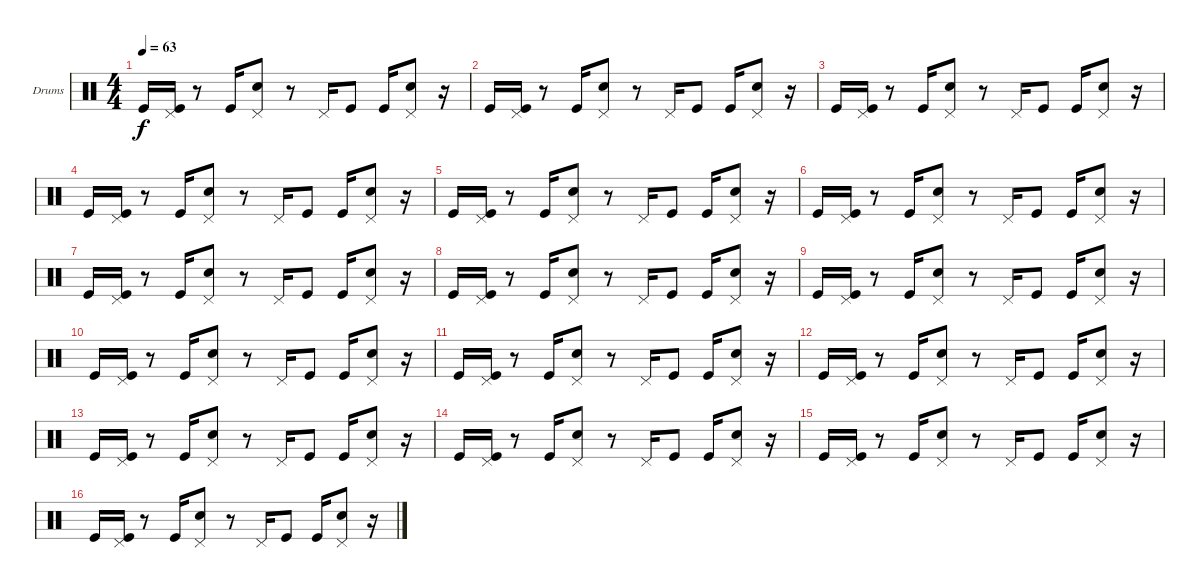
\bracketExtendMode groupsimilarinstruments
\firstSystemTrackNameOrientation horizontal
\otherSystemsTrackNameOrientation horizontal
\track ("Drumkit" "Drums") {instrument percussion}
\staff {score}
\articulation defaults
\ts (4 4)
\tempo 63
\clef neutral
\ks c "Kick (hit)".16{dy f}
("Pedal Hi-Hat (hit)" "Kick (hit)").16 r.8 "Kick (hit)".16 ("Pedal Hi-Hat (hit)" "Snare (hit) 2").8 r.8 "Pedal Hi-Hat (hit)".16 "Kick (hit)".8 "Kick (hit)".16 ("Pedal Hi-Hat (hit)" "Snare (hit) 2").8 r.16 |
"Kick (hit)".16 ("Pedal Hi-Hat (hit)" "Kick (hit)").16 r.8 "Kick (hit)".16 ("Pedal Hi-Hat (hit)" "Snare (hit) 2").8 r.8 "Pedal Hi-Hat (hit)".16 "Kick (hit)".8 "Kick (hit)".16 ("Pedal Hi-Hat (hit)" "Snare (hit) 2").8 r.16 |
"Kick (hit)".16 ("Pedal Hi-Hat (hit)" "Kick (hit)").16 r.8 "Kick (hit)".16 ("Pedal Hi-Hat (hit)" "Snare (hit) 2").8 r.8 "Pedal Hi-Hat (hit)".16 "Kick (hit)".8 "Kick (hit)".16 ("Pedal Hi-Hat (hit)" "Snare (hit) 2").8 r.16 |
"Kick (hit)".16 ("Pedal Hi-Hat (hit)" "Kick (hit)").16 r.8 "Kick (hit)".16 ("Pedal Hi-Hat (hit)" "Snare (hit) 2").8 r.8 "Pedal Hi-Hat (hit)".16 "Kick (hit)".8 "Kick (hit)".16 ("Pedal Hi-Hat (hit)" "Snare (hit) 2").8 r.16 |
"Kick (hit)".16 ("Pedal Hi-Hat (hit)" "Kick (hit)").16 r.8 "Kick (hit)".16 ("Pedal Hi-Hat (hit)" "Snare (hit) 2").8 r.8 "Pedal Hi-Hat (hit)".16 "Kick (hit)".8 "Kick (hit)".16 ("Pedal Hi-Hat (hit)" "Snare (hit) 2").8 r.16 |
"Kick (hit)".16 ("Pedal Hi-Hat (hit)" "Kick (hit)").16 r.8 "Kick (hit)".16 ("Pedal Hi-Hat (hit)" "Snare (hit) 2").8 r.8 "Pedal Hi-Hat (hit)".16 "Kick (hit)".8 "Kick (hit)".16 ("Pedal Hi-Hat (hit)" "Snare (hit) 2").8 r.16 |
"Kick (hit)".16 ("Pedal Hi-Hat (hit)" "Kick (hit)").16 r.8 "Kick (hit)".16 ("Pedal Hi-Hat (hit)" "Snare (hit) 2").8 r.8 "Pedal Hi-Hat (hit)".16 "Kick (hit)".8 "Kick (hit)".16 ("Pedal Hi-Hat (hit)" "Snare (hit) 2").8 r.16 |
"Kick (hit)".16 ("Pedal Hi-Hat (hit)" "Kick (hit)").16 r.8 "Kick (hit)".16 ("Pedal Hi-Hat (hit)" "Snare (hit) 2").8 r.8 "Pedal Hi-Hat (hit)".16 "Kick (hit)".8 "Kick (hit)".16 ("Pedal Hi-Hat (hit)" "Snare (hit) 2").8 r.16 |
"Kick (hit)".16 ("Pedal Hi-Hat (hit)" "Kick (hit)").16 r.8 "Kick (hit)".16 ("Pedal Hi-Hat (hit)" "Snare (hit) 2").8 r.8 "Pedal Hi-Hat (hit)".16 "Kick (hit)".8 "Kick (hit)".16 ("Pedal Hi-Hat (hit)" "Snare (hit) 2").8 r.16 |
"Kick (hit)".16 ("Pedal Hi-Hat (hit)" "Kick (hit)").16 r.8 "Kick (hit)".16 ("Pedal Hi-Hat (hit)" "Snare (hit) 2").8 r.8 "Pedal Hi-Hat (hit)".16 "Kick (hit)".8 "Kick (hit)".16 ("Pedal Hi-Hat (hit)" "Snare (hit) 2").8 r.16 |
"Kick (hit)".16 ("Pedal Hi-Hat (hit)" "Kick (hit)").16 r.8 "Kick (hit)".16 ("Pedal Hi-Hat (hit)" "Snare (hit) 2").8 r.8 "Pedal Hi-Hat (hit)".16 "Kick (hit)".8 "Kick (hit)".16 ("Pedal Hi-Hat (hit)" "Snare (hit) 2").8 r.16 |
"Kick (hit)".16 ("Pedal Hi-Hat (hit)" "Kick (hit)").16 r.8 "Kick (hit)".16 ("Pedal Hi-Hat (hit)" "Snare (hit) 2").8 r.8 "Pedal Hi-Hat (hit)".16 "Kick (hit)".8 "Kick (hit)".16 ("Pedal Hi-Hat (hit)" "Snare (hit) 2").8 r.16 |
"Kick (hit)".16 ("Pedal Hi-Hat (hit)" "Kick (hit)").16 r.8 "Kick (hit)".16 ("Pedal Hi-Hat (hit)" "Snare (hit) 2").8 r.8 "Pedal Hi-Hat (hit)".16 "Kick (hit)".8 "Kick (hit)".16 ("Pedal Hi-Hat (hit)" "Snare (hit) 2").8 r.16 |
"Kick (hit)".16 ("Pedal Hi-Hat (hit)" "Kick (hit)").16 r.8 "Kick (hit)".16 ("Pedal Hi-Hat (hit)" "Snare (hit) 2").8 r.8 "Pedal Hi-Hat (hit)".16 "Kick (hit)".8 "Kick (hit)".16 ("Pedal Hi-Hat (hit)" "Snare (hit) 2").8 r.16 |
"Kick (hit)".16 ("Pedal Hi-Hat (hit)" "Kick (hit)").16 r.8 "Kick (hit)".16 ("Pedal Hi-Hat (hit)" "Snare (hit) 2").8 r.8 "Pedal Hi-Hat (hit)".16 "Kick (hit)".8 "Kick (hit)".16 ("Pedal Hi-Hat (hit)" "Snare (hit) 2").8 r.16 |
"Kick (hit)".16 ("Pedal Hi-Hat (hit)" "Kick (hit)").16 r.8 "Kick (hit)".16 ("Pedal Hi-Hat (hit)" "Snare (hit) 2").8 r.8 "Pedal Hi-Hat (hit)".16 "Kick (hit)".8 "Kick (hit)".16 ("Pedal Hi-Hat (hit)" "Snare (hit) 2").8 r.16
